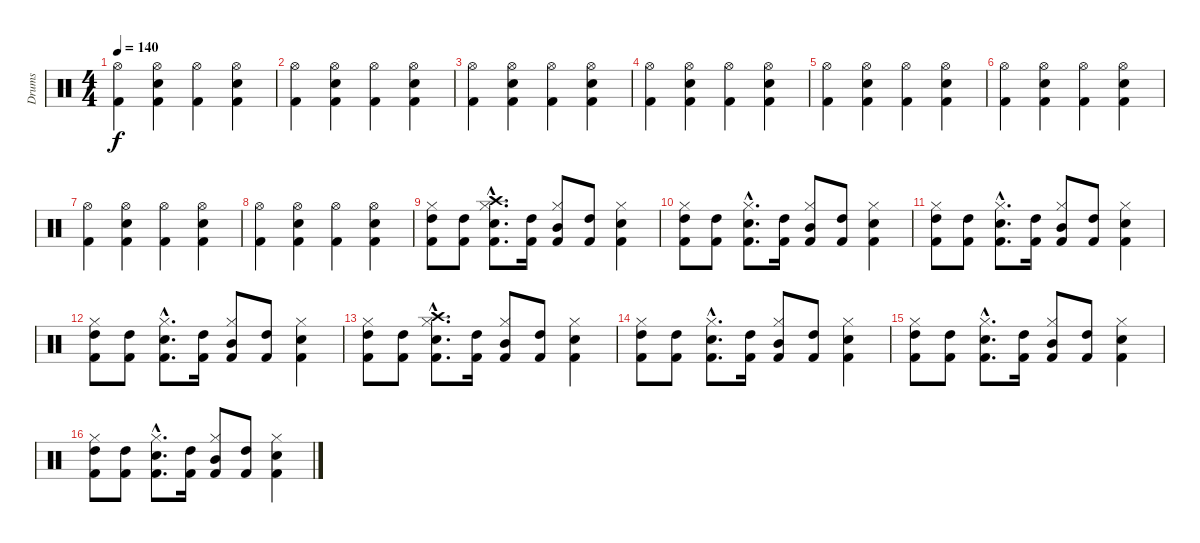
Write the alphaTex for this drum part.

\track ("Drums" "Drums") {instrument percussion}
\staff {score}
\articulation defaults
\ts (4 4)
\tempo 140
\clef neutral
\ks c
("Hi-Hat (open)" "Kick (hit) 2").4{dy f} ("Hi-Hat (open)" "Electric Snare (hit)" "Kick (hit) 2").4 ("Hi-Hat (open)" "Kick (hit) 2").4 ("Hi-Hat (open)" "Electric Snare (hit)" "Kick (hit) 2").4 |
("Hi-Hat (open)" "Kick (hit) 2").4 ("Hi-Hat (open)" "Electric Snare (hit)" "Kick (hit) 2").4 ("Hi-Hat (open)" "Kick (hit) 2").4 ("Hi-Hat (open)" "Electric Snare (hit)" "Kick (hit) 2").4 |
("Hi-Hat (open)" "Kick (hit) 2").4 ("Hi-Hat (open)" "Electric Snare (hit)" "Kick (hit) 2").4 ("Hi-Hat (open)" "Kick (hit) 2").4 ("Hi-Hat (open)" "Electric Snare (hit)" "Kick (hit) 2").4 |
("Hi-Hat (open)" "Kick (hit) 2").4 ("Hi-Hat (open)" "Electric Snare (hit)" "Kick (hit) 2").4 ("Hi-Hat (open)" "Kick (hit) 2").4 ("Hi-Hat (open)" "Electric Snare (hit)" "Kick (hit) 2").4 |
("Hi-Hat (open)" "Kick (hit) 2").4 ("Hi-Hat (open)" "Electric Snare (hit)" "Kick (hit) 2").4 ("Hi-Hat (open)" "Kick (hit) 2").4 ("Hi-Hat (open)" "Electric Snare (hit)" "Kick (hit) 2").4 |
("Hi-Hat (open)" "Kick (hit) 2").4 ("Hi-Hat (open)" "Electric Snare (hit)" "Kick (hit) 2").4 ("Hi-Hat (open)" "Kick (hit) 2").4 ("Hi-Hat (open)" "Electric Snare (hit)" "Kick (hit) 2").4 |
("Hi-Hat (open)" "Kick (hit) 2").4 ("Hi-Hat (open)" "Electric Snare (hit)" "Kick (hit) 2").4 ("Hi-Hat (open)" "Kick (hit) 2").4 ("Hi-Hat (open)" "Electric Snare (hit)" "Kick (hit) 2").4 |
("Hi-Hat (open)" "Kick (hit) 2").4 ("Hi-Hat (open)" "Electric Snare (hit)" "Kick (hit) 2").4 ("Hi-Hat (open)" "Kick (hit) 2").4 ("Hi-Hat (open)" "Electric Snare (hit)" "Kick (hit) 2").4 |
("Kick (hit) 2" "High Tom (hit)" "Hi-Hat (closed)").8 ("Kick (hit) 2" "High Tom (hit)").8 ("Kick (hit) 2"{hac} "Electric Snare (hit)"{hac} "Crash high (hit)"{hac} "Hi-Hat (closed)"{hac}).8{d} ("Kick (hit) 2" "High Tom (hit)").16 ("Kick (hit) 2" "Mid Tom (hit)" "Hi-Hat (closed)").8 ("Kick (hit) 2" "High Tom (hit)").8 ("Kick (hit) 2" "Electric Snare (hit)" "Hi-Hat (closed)").4 |
("Kick (hit) 2" "High Tom (hit)" "Hi-Hat (closed)").8 ("Kick (hit) 2" "High Tom (hit)").8 ("Kick (hit) 2"{hac} "Electric Snare (hit)"{hac} "Hi-Hat (closed)"{hac}).8{d} ("Kick (hit) 2" "High Tom (hit)").16 ("Kick (hit) 2" "Mid Tom (hit)" "Hi-Hat (closed)").8 ("Kick (hit) 2" "High Tom (hit)").8 ("Kick (hit) 2" "Electric Snare (hit)" "Hi-Hat (closed)").4 |
("Kick (hit) 2" "High Tom (hit)" "Hi-Hat (closed)").8 ("Kick (hit) 2" "High Tom (hit)").8 ("Kick (hit) 2"{hac} "Electric Snare (hit)"{hac} "Hi-Hat (closed)"{hac}).8{d} ("Kick (hit) 2" "High Tom (hit)").16 ("Kick (hit) 2" "Mid Tom (hit)" "Hi-Hat (closed)").8 ("Kick (hit) 2" "High Tom (hit)").8 ("Kick (hit) 2" "Electric Snare (hit)" "Hi-Hat (closed)").4 |
("Kick (hit) 2" "High Tom (hit)" "Hi-Hat (closed)").8 ("Kick (hit) 2" "High Tom (hit)").8 ("Kick (hit) 2"{hac} "Electric Snare (hit)"{hac} "Hi-Hat (closed)"{hac}).8{d} ("Kick (hit) 2" "High Tom (hit)").16 ("Kick (hit) 2" "Mid Tom (hit)" "Hi-Hat (closed)").8 ("Kick (hit) 2" "High Tom (hit)").8 ("Kick (hit) 2" "Electric Snare (hit)" "Hi-Hat (closed)").4 |
("Kick (hit) 2" "High Tom (hit)" "Hi-Hat (closed)").8 ("Kick (hit) 2" "High Tom (hit)").8 ("Kick (hit) 2"{hac} "Electric Snare (hit)"{hac} "Crash high (hit)"{hac} "Hi-Hat (closed)"{hac}).8{d} ("Kick (hit) 2" "High Tom (hit)").16 ("Kick (hit) 2" "Mid Tom (hit)" "Hi-Hat (closed)").8 ("Kick (hit) 2" "High Tom (hit)").8 ("Kick (hit) 2" "Electric Snare (hit)" "Hi-Hat (closed)").4 |
("Kick (hit) 2" "High Tom (hit)" "Hi-Hat (closed)").8 ("Kick (hit) 2" "High Tom (hit)").8 ("Kick (hit) 2"{hac} "Electric Snare (hit)"{hac} "Hi-Hat (closed)"{hac}).8{d} ("Kick (hit) 2" "High Tom (hit)").16 ("Kick (hit) 2" "Mid Tom (hit)" "Hi-Hat (closed)").8 ("Kick (hit) 2" "High Tom (hit)").8 ("Kick (hit) 2" "Electric Snare (hit)" "Hi-Hat (closed)").4 |
("Kick (hit) 2" "High Tom (hit)" "Hi-Hat (closed)").8 ("Kick (hit) 2" "High Tom (hit)").8 ("Kick (hit) 2"{hac} "Electric Snare (hit)"{hac} "Hi-Hat (closed)"{hac}).8{d} ("Kick (hit) 2" "High Tom (hit)").16 ("Kick (hit) 2" "Mid Tom (hit)" "Hi-Hat (closed)").8 ("Kick (hit) 2" "High Tom (hit)").8 ("Kick (hit) 2" "Electric Snare (hit)" "Hi-Hat (closed)").4 |
("Kick (hit) 2" "High Tom (hit)" "Hi-Hat (closed)").8 ("Kick (hit) 2" "High Tom (hit)").8 ("Kick (hit) 2"{hac} "Electric Snare (hit)"{hac} "Hi-Hat (closed)"{hac}).8{d} ("Kick (hit) 2" "High Tom (hit)").16 ("Kick (hit) 2" "Mid Tom (hit)" "Hi-Hat (closed)").8 ("Kick (hit) 2" "High Tom (hit)").8 ("Kick (hit) 2" "Electric Snare (hit)" "Hi-Hat (closed)").4
